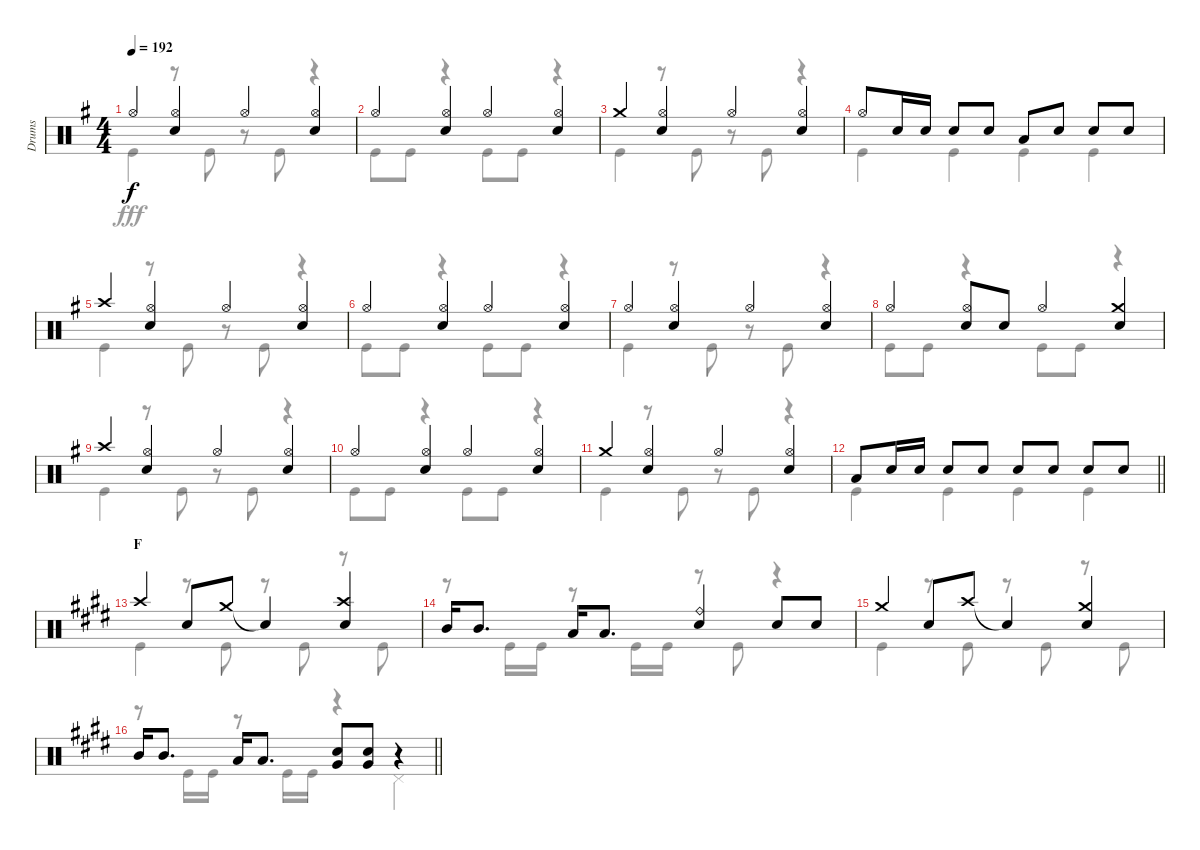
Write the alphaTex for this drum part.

\track ("Drums" "Drums") {instrument percussion}
\staff {score}
\articulation defaults
\voice
\ts (4 4)
\tempo 192
\clef neutral
\ks g "Hi-Hat (open)".4{dy f}
("Hi-Hat (open)" "Snare (hit) 2").4 "Hi-Hat (open)".4 ("Hi-Hat (open)" "Snare (hit) 2").4 |
"Hi-Hat (open)".4 ("Hi-Hat (open)" "Snare (hit) 2").4 "Hi-Hat (open)".4 ("Hi-Hat (open)" "Snare (hit) 2").4 |
"Crash medium (hit)".4 ("Hi-Hat (open)" "Snare (hit) 2").4 "Hi-Hat (open)".4 ("Hi-Hat (open)" "Snare (hit) 2").4 |
"Hi-Hat (open)".8 "Snare (hit) 2".16 "Snare (hit) 2".16 "Snare (hit) 2".8 "Snare (hit) 2".8 "Low Tom (hit)".8 "Snare (hit) 2".8 "Snare (hit) 2".8 "Snare (hit) 2".8 |
"Crash high (hit)".4 ("Hi-Hat (open)" "Snare (hit) 2").4 "Hi-Hat (open)".4 ("Hi-Hat (open)" "Snare (hit) 2").4 |
"Hi-Hat (open)".4 ("Hi-Hat (open)" "Snare (hit) 2").4 "Hi-Hat (open)".4 ("Hi-Hat (open)" "Snare (hit) 2").4 |
"Hi-Hat (open)".4 ("Hi-Hat (open)" "Snare (hit) 2").4 "Hi-Hat (open)".4 ("Hi-Hat (open)" "Snare (hit) 2").4 |
"Hi-Hat (open)".4 ("Hi-Hat (open)" "Snare (hit) 2").8 "Snare (hit) 2".8 "Hi-Hat (open)".4 ("Crash medium (hit)" "Snare (hit) 2").4 |
"Crash high (hit)".4 ("Hi-Hat (open)" "Snare (hit) 2").4 "Hi-Hat (open)".4 ("Hi-Hat (open)" "Snare (hit) 2").4 |
"Hi-Hat (open)".4 ("Hi-Hat (open)" "Snare (hit) 2").4 "Hi-Hat (open)".4 ("Hi-Hat (open)" "Snare (hit) 2").4 |
"Crash medium (hit)".4 ("Hi-Hat (open)" "Snare (hit) 2").4 "Hi-Hat (open)".4 ("Hi-Hat (open)" "Snare (hit) 2").4 |
\barLineRight lightlight "Low Tom (hit)".8 "Snare (hit) 2".16 "Snare (hit) 2".16 "Snare (hit) 2".8 "Snare (hit) 2".8 "Snare (hit) 2".8 "Snare (hit) 2".8 "Snare (hit) 2".8 "Snare (hit) 2".8
|
\section ("" "F")
\ks e "Crash high (hit)".4 "Snare (hit) 2".8 "Crash medium (hit)".8 "Snare (hit)"{t}.4
("Crash high (hit)" "Snare (hit) 2").4 |
"Mid Tom (hit)".16 "Mid Tom (hit)".8{d} "Low Tom (hit)".16 "Low Tom (hit)".8{d} ("Ride (bell)" "Snare (hit) 2").4 "Snare (hit) 2".8 "Snare (hit) 2".8 |
"Crash medium (hit)".4 "Snare (hit) 2".8 "Crash high (hit)".8 "Snare (hit)"{t}.4 ("Crash medium (hit)" "Snare (hit) 2").4 |
\barLineRight lightlight "Mid Tom (hit)".16 "Mid Tom (hit)".8{d} "Low Tom (hit)".16 "Low Tom (hit)".8{d}
("Snare (hit) 2" "Very Low Tom (hit)").8 ("Snare (hit) 2" "Very Low Tom (hit)").8 r.4
\voice
\clef neutral
\ottava regular
\simile none
\ks g "Kick (hit)".4{dy fff}
r.8 "Kick (hit)".8 r.8 "Kick (hit)".8 r.4 |
"Kick (hit)".8 "Kick (hit)".8 r.4 "Kick (hit)".8 "Kick (hit)".8 r.4 |
"Kick (hit)".4 r.8 "Kick (hit)".8 r.8 "Kick (hit)".8 r.4 |
"Kick (hit)".4 "Kick (hit)".4 "Kick (hit)".4 "Kick (hit)".4 |
"Kick (hit)".4 r.8 "Kick (hit)".8 r.8 "Kick (hit)".8 r.4 |
"Kick (hit)".8 "Kick (hit)".8 r.4 "Kick (hit)".8 "Kick (hit)".8 r.4 |
"Kick (hit)".4 r.8 "Kick (hit)".8 r.8 "Kick (hit)".8 r.4 |
"Kick (hit)".8 "Kick (hit)".8 r.4 "Kick (hit)".8 "Kick (hit)".8 r.4 |
"Kick (hit)".4 r.8 "Kick (hit)".8 r.8 "Kick (hit)".8 r.4 |
"Kick (hit)".8 "Kick (hit)".8 r.4 "Kick (hit)".8 "Kick (hit)".8 r.4 |
"Kick (hit)".4 r.8 "Kick (hit)".8 r.8 "Kick (hit)".8 r.4 |
\barLineRight lightlight "Kick (hit)".4 "Kick (hit)".4 "Kick (hit)".4 "Kick (hit)".4
|
\ks e "Kick (hit)".4
r.8 "Kick (hit)".8 r.8 "Kick (hit)".8 r.8 "Kick (hit)".8 |
r.8 "Kick (hit)".16 "Kick (hit)".16 r.8 "Kick (hit)".16 "Kick (hit)".16 r.8 "Kick (hit)".8 r.4 |
"Kick (hit)".4 r.8 "Kick (hit)".8 r.8 "Kick (hit)".8 r.8 "Kick (hit)".8 |
\barLineRight lightlight
r.8 "Kick (hit)".16 "Kick (hit)".16 r.8 "Kick (hit)".16 "Kick (hit)".16 r.4 "Pedal Hi-Hat (hit)".4
